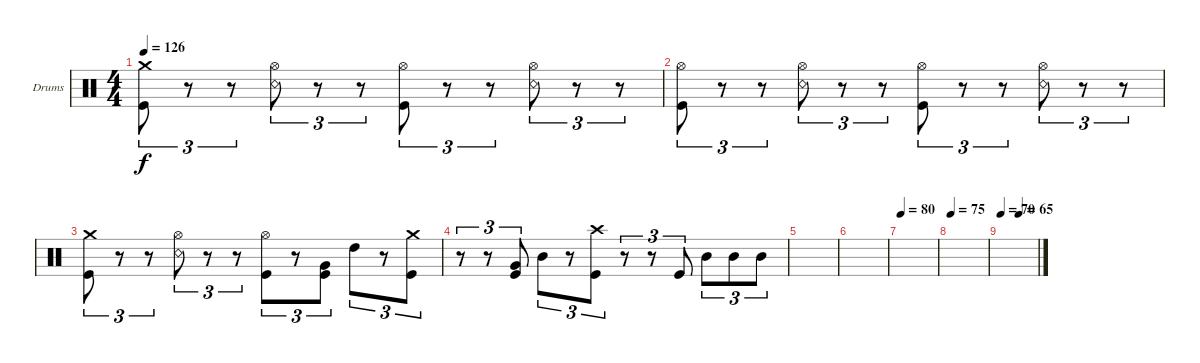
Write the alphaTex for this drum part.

\defaultSystemsLayout 4
\bracketExtendMode groupsimilarinstruments
\firstSystemTrackNameOrientation horizontal
\otherSystemsTrackNameOrientation horizontal
\track ("Dominic Howard" "Drums") {instrument percussion}
\staff {score}
\articulation defaults
\ts (4 4)
\tempo 126
\clef neutral
\ks c
("Kick (hit)" "Crash medium (hit)").8{tu (3 2) dy f} r.8{tu (3 2)} r.8{tu (3 2)} ("Snare (rim shot)" "Hi-Hat (open)").8{tu (3 2)} r.8{tu (3 2)} r.8{tu (3 2)} ("Kick (hit)" "Hi-Hat (open)").8{tu (3 2)} r.8{tu (3 2)} r.8{tu (3 2)} ("Snare (rim shot)" "Hi-Hat (open)").8{tu (3 2)} r.8{tu (3 2)} r.8{tu (3 2)} |
("Kick (hit)" "Hi-Hat (open)").8{tu (3 2)} r.8{tu (3 2)} r.8{tu (3 2)} ("Snare (rim shot)" "Hi-Hat (open)").8{tu (3 2)} r.8{tu (3 2)} r.8{tu (3 2)} ("Kick (hit)" "Hi-Hat (open)").8{tu (3 2)} r.8{tu (3 2)} r.8{tu (3 2)} ("Snare (rim shot)" "Hi-Hat (open)").8{tu (3 2)} r.8{tu (3 2)} r.8{tu (3 2)} |
("Kick (hit)" "Crash medium (hit)").8{tu (3 2)} r.8{tu (3 2)} r.8{tu (3 2)} ("Snare (rim shot)" "Hi-Hat (open)").8{tu (3 2)} r.8{tu (3 2)} r.8{tu (3 2)} ("Kick (hit)" "Hi-Hat (open)").8{tu (3 2)} r.8{tu (3 2)} ("Kick (hit)" "Very Low Tom (hit)").8{tu (3 2)} "High Tom (hit)".8{tu (3 2)} r.8{tu (3 2)} ("Kick (hit)" "Crash medium (hit)").8{tu (3 2)} |
r.8{tu (3 2)} r.8{tu (3 2)} ("Kick (hit)" "Very Low Tom (hit)").8{tu (3 2)} "Mid Tom (hit)".8{tu (3 2)} r.8{tu (3 2)} ("Kick (hit)" "Crash high (hit)").8{tu (3 2)} r.8{tu (3 2)} r.8{tu (3 2)} "Kick (hit)".8{tu (3 2)} "Mid Tom (hit)".8{tu (3 2)} "Mid Tom (hit)".8{tu (3 2)} "Mid Tom (hit)".8{tu (3 2)} |
|
|
\tempo 80
|
\tempo 75
|
\tempo 70
\tempo (65 0.5)
